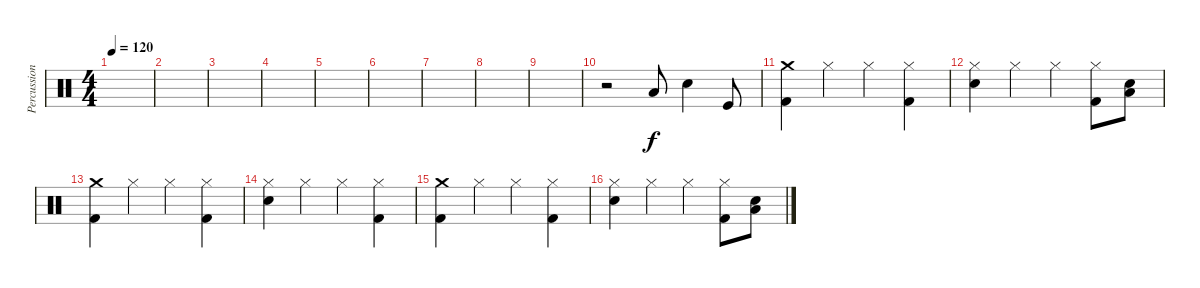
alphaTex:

\track ("Percussion" "Percussion") {instrument percussion}
\staff {score}
\articulation defaults
\ts (4 4)
\tempo 120
\clef neutral
\ks c
|
|
|
|
|
|
|
|
|
r.2 "Low Tom (hit)".8 "Electric Snare (hit)".4 "Kick (hit)".8 |
("Crash medium (hit)" "Kick (hit) 2").4 "Hi-Hat (closed)".4 "Hi-Hat (closed)".4 ("Hi-Hat (closed)" "Kick (hit) 2").4 |
("Hi-Hat (closed)" "Snare (hit) 2").4 "Hi-Hat (closed)".4 "Hi-Hat (closed)".4 ("Hi-Hat (closed)" "Kick (hit) 2").8 ("Low Tom (hit)" "Electric Snare (hit)").8 |
\ks aminor
("Crash medium (hit)" "Kick (hit) 2").4 "Hi-Hat (closed)".4 "Hi-Hat (closed)".4 ("Hi-Hat (closed)" "Kick (hit) 2").4 |
("Hi-Hat (closed)" "Snare (hit) 2").4 "Hi-Hat (closed)".4 "Hi-Hat (closed)".4 ("Hi-Hat (closed)" "Kick (hit) 2").4 |
\ks c
("Crash medium (hit)" "Kick (hit) 2").4 "Hi-Hat (closed)".4 "Hi-Hat (closed)".4 ("Hi-Hat (closed)" "Kick (hit) 2").4 |
("Hi-Hat (closed)" "Snare (hit) 2").4 "Hi-Hat (closed)".4 "Hi-Hat (closed)".4 ("Hi-Hat (closed)" "Kick (hit) 2").8 ("Low Tom (hit)" "Electric Snare (hit)").8
